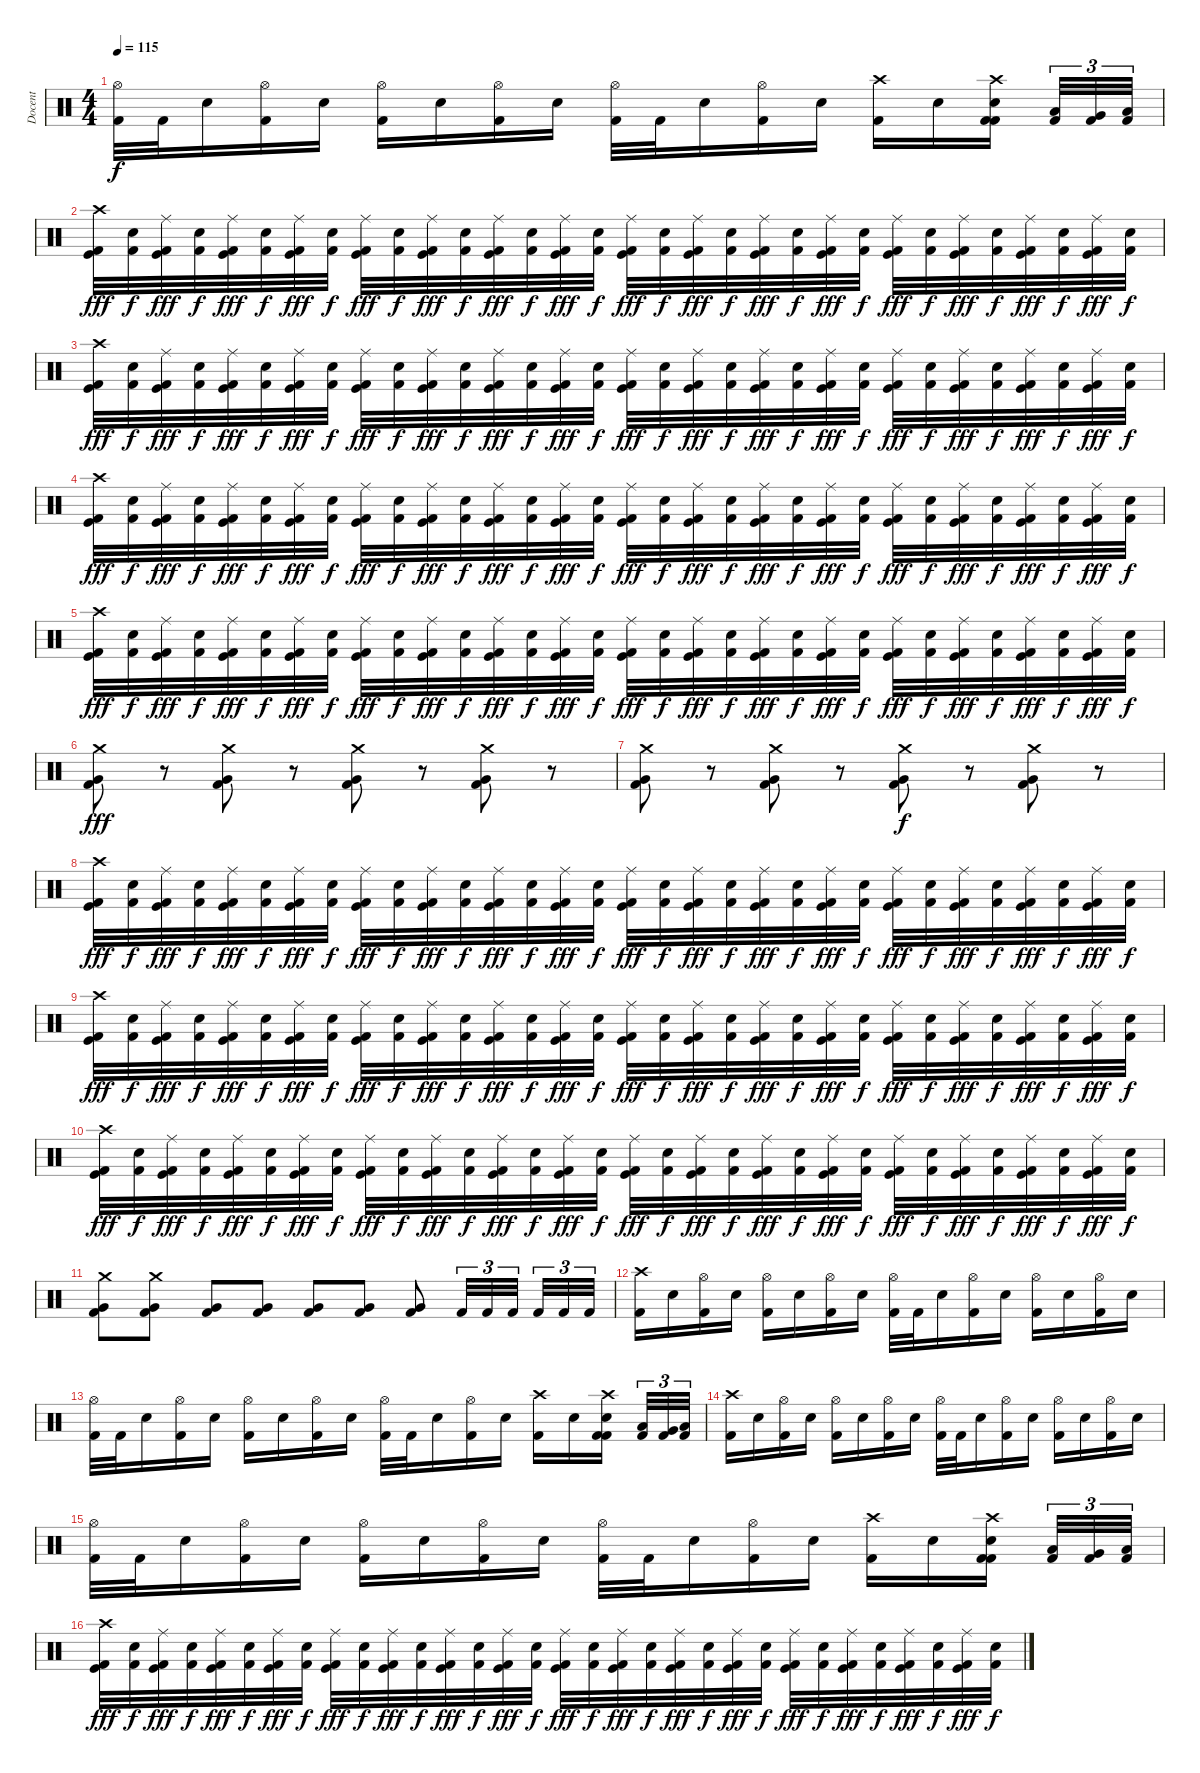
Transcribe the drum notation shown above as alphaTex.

\track ("Docent" "Docent") {instrument percussion}
\staff {score}
\articulation defaults
\ts (4 4)
\tempo 115
\clef neutral
\ks c
("Hi-Hat (open)" "Kick (hit) 2").32{dy f} "Kick (hit) 2".32 "Electric Snare (hit)".16 ("Hi-Hat (open)" "Kick (hit) 2").16 "Electric Snare (hit)".16 ("Hi-Hat (open)" "Kick (hit) 2").16 "Electric Snare (hit)".16 ("Hi-Hat (open)" "Kick (hit) 2").16 "Electric Snare (hit)".16 ("Hi-Hat (open)" "Kick (hit) 2").32 "Kick (hit) 2".32 "Electric Snare (hit)".16 ("Hi-Hat (open)" "Kick (hit) 2").16 "Electric Snare (hit)".16 ("Crash high (hit)" "Kick (hit) 2").16 "Electric Snare (hit)".16 ("Crash high (hit)" "Electric Snare (hit)" "Kick (hit) 2" "Kick (hit) 2").16 ("Kick (hit) 2" "Low Tom (hit)").32{tu (3 2)} ("Kick (hit) 2" "Very Low Tom (hit)").32{tu (3 2)} ("Kick (hit) 2" "Low Floor Tom (hit)").32{tu (3 2)} |
("Crash high (hit)" "Kick (hit)" "Kick (hit) 2").32{dy fff} ("Electric Snare (hit)" "Kick (hit) 2").32{dy f} ("Ride (middle)" "Kick (hit)" "Kick (hit) 2").32{dy fff} ("Electric Snare (hit)" "Kick (hit) 2").32{dy f} ("Ride (middle)" "Kick (hit)" "Kick (hit) 2").32{dy fff} ("Electric Snare (hit)" "Kick (hit) 2").32{dy f} ("Ride (middle)" "Kick (hit)" "Kick (hit) 2").32{dy fff} ("Electric Snare (hit)" "Kick (hit) 2").32{dy f} ("Ride (middle)" "Kick (hit)" "Kick (hit) 2").32{dy fff} ("Electric Snare (hit)" "Kick (hit) 2").32{dy f} ("Ride (middle)" "Kick (hit)" "Kick (hit) 2").32{dy fff} ("Electric Snare (hit)" "Kick (hit) 2").32{dy f} ("Ride (middle)" "Kick (hit)" "Kick (hit) 2").32{dy fff} ("Electric Snare (hit)" "Kick (hit) 2").32{dy f} ("Ride (middle)" "Kick (hit)" "Kick (hit) 2").32{dy fff} ("Electric Snare (hit)" "Kick (hit) 2").32{dy f} ("Ride (middle)" "Kick (hit)" "Kick (hit) 2").32{dy fff} ("Electric Snare (hit)" "Kick (hit) 2").32{dy f} ("Ride (middle)" "Kick (hit)" "Kick (hit) 2").32{dy fff} ("Electric Snare (hit)" "Kick (hit) 2").32{dy f} ("Ride (middle)" "Kick (hit)" "Kick (hit) 2").32{dy fff} ("Electric Snare (hit)" "Kick (hit) 2").32{dy f} ("Ride (middle)" "Kick (hit)" "Kick (hit) 2").32{dy fff} ("Electric Snare (hit)" "Kick (hit) 2").32{dy f} ("Ride (middle)" "Kick (hit)" "Kick (hit) 2").32{dy fff} ("Electric Snare (hit)" "Kick (hit) 2").32{dy f} ("Ride (middle)" "Kick (hit)" "Kick (hit) 2").32{dy fff} ("Electric Snare (hit)" "Kick (hit) 2").32{dy f} ("Ride (middle)" "Kick (hit)" "Kick (hit) 2").32{dy fff} ("Electric Snare (hit)" "Kick (hit) 2").32{dy f} ("Ride (middle)" "Kick (hit)" "Kick (hit) 2").32{dy fff} ("Electric Snare (hit)" "Kick (hit) 2").32{dy f} |
("Crash high (hit)" "Kick (hit)" "Kick (hit) 2").32{dy fff} ("Electric Snare (hit)" "Kick (hit) 2").32{dy f} ("Ride (middle)" "Kick (hit)" "Kick (hit) 2").32{dy fff} ("Electric Snare (hit)" "Kick (hit) 2").32{dy f} ("Ride (middle)" "Kick (hit)" "Kick (hit) 2").32{dy fff} ("Electric Snare (hit)" "Kick (hit) 2").32{dy f} ("Ride (middle)" "Kick (hit)" "Kick (hit) 2").32{dy fff} ("Electric Snare (hit)" "Kick (hit) 2").32{dy f} ("Ride (middle)" "Kick (hit)" "Kick (hit) 2").32{dy fff} ("Electric Snare (hit)" "Kick (hit) 2").32{dy f} ("Ride (middle)" "Kick (hit)" "Kick (hit) 2").32{dy fff} ("Electric Snare (hit)" "Kick (hit) 2").32{dy f} ("Ride (middle)" "Kick (hit)" "Kick (hit) 2").32{dy fff} ("Electric Snare (hit)" "Kick (hit) 2").32{dy f} ("Ride (middle)" "Kick (hit)" "Kick (hit) 2").32{dy fff} ("Electric Snare (hit)" "Kick (hit) 2").32{dy f} ("Ride (middle)" "Kick (hit)" "Kick (hit) 2").32{dy fff} ("Electric Snare (hit)" "Kick (hit) 2").32{dy f} ("Ride (middle)" "Kick (hit)" "Kick (hit) 2").32{dy fff} ("Electric Snare (hit)" "Kick (hit) 2").32{dy f} ("Ride (middle)" "Kick (hit)" "Kick (hit) 2").32{dy fff} ("Electric Snare (hit)" "Kick (hit) 2").32{dy f} ("Ride (middle)" "Kick (hit)" "Kick (hit) 2").32{dy fff} ("Electric Snare (hit)" "Kick (hit) 2").32{dy f} ("Ride (middle)" "Kick (hit)" "Kick (hit) 2").32{dy fff} ("Electric Snare (hit)" "Kick (hit) 2").32{dy f} ("Ride (middle)" "Kick (hit)" "Kick (hit) 2").32{dy fff} ("Electric Snare (hit)" "Kick (hit) 2").32{dy f} ("Ride (middle)" "Kick (hit)" "Kick (hit) 2").32{dy fff} ("Electric Snare (hit)" "Kick (hit) 2").32{dy f} ("Ride (middle)" "Kick (hit)" "Kick (hit) 2").32{dy fff} ("Electric Snare (hit)" "Kick (hit) 2").32{dy f} |
("Crash high (hit)" "Kick (hit)" "Kick (hit) 2").32{dy fff} ("Electric Snare (hit)" "Kick (hit) 2").32{dy f} ("Ride (middle)" "Kick (hit)" "Kick (hit) 2").32{dy fff} ("Electric Snare (hit)" "Kick (hit) 2").32{dy f} ("Ride (middle)" "Kick (hit)" "Kick (hit) 2").32{dy fff} ("Electric Snare (hit)" "Kick (hit) 2").32{dy f} ("Ride (middle)" "Kick (hit)" "Kick (hit) 2").32{dy fff} ("Electric Snare (hit)" "Kick (hit) 2").32{dy f} ("Ride (middle)" "Kick (hit)" "Kick (hit) 2").32{dy fff} ("Electric Snare (hit)" "Kick (hit) 2").32{dy f} ("Ride (middle)" "Kick (hit)" "Kick (hit) 2").32{dy fff} ("Electric Snare (hit)" "Kick (hit) 2").32{dy f} ("Ride (middle)" "Kick (hit)" "Kick (hit) 2").32{dy fff} ("Electric Snare (hit)" "Kick (hit) 2").32{dy f} ("Ride (middle)" "Kick (hit)" "Kick (hit) 2").32{dy fff} ("Electric Snare (hit)" "Kick (hit) 2").32{dy f} ("Ride (middle)" "Kick (hit)" "Kick (hit) 2").32{dy fff} ("Electric Snare (hit)" "Kick (hit) 2").32{dy f} ("Ride (middle)" "Kick (hit)" "Kick (hit) 2").32{dy fff} ("Electric Snare (hit)" "Kick (hit) 2").32{dy f} ("Ride (middle)" "Kick (hit)" "Kick (hit) 2").32{dy fff} ("Electric Snare (hit)" "Kick (hit) 2").32{dy f} ("Ride (middle)" "Kick (hit)" "Kick (hit) 2").32{dy fff} ("Electric Snare (hit)" "Kick (hit) 2").32{dy f} ("Ride (middle)" "Kick (hit)" "Kick (hit) 2").32{dy fff} ("Electric Snare (hit)" "Kick (hit) 2").32{dy f} ("Ride (middle)" "Kick (hit)" "Kick (hit) 2").32{dy fff} ("Electric Snare (hit)" "Kick (hit) 2").32{dy f} ("Ride (middle)" "Kick (hit)" "Kick (hit) 2").32{dy fff} ("Electric Snare (hit)" "Kick (hit) 2").32{dy f} ("Ride (middle)" "Kick (hit)" "Kick (hit) 2").32{dy fff} ("Electric Snare (hit)" "Kick (hit) 2").32{dy f} |
("Crash high (hit)" "Kick (hit)" "Kick (hit) 2").32{dy fff} ("Electric Snare (hit)" "Kick (hit) 2").32{dy f} ("Ride (middle)" "Kick (hit)" "Kick (hit) 2").32{dy fff} ("Electric Snare (hit)" "Kick (hit) 2").32{dy f} ("Ride (middle)" "Kick (hit)" "Kick (hit) 2").32{dy fff} ("Electric Snare (hit)" "Kick (hit) 2").32{dy f} ("Ride (middle)" "Kick (hit)" "Kick (hit) 2").32{dy fff} ("Electric Snare (hit)" "Kick (hit) 2").32{dy f} ("Ride (middle)" "Kick (hit)" "Kick (hit) 2").32{dy fff} ("Electric Snare (hit)" "Kick (hit) 2").32{dy f} ("Ride (middle)" "Kick (hit)" "Kick (hit) 2").32{dy fff} ("Electric Snare (hit)" "Kick (hit) 2").32{dy f} ("Ride (middle)" "Kick (hit)" "Kick (hit) 2").32{dy fff} ("Electric Snare (hit)" "Kick (hit) 2").32{dy f} ("Ride (middle)" "Kick (hit)" "Kick (hit) 2").32{dy fff} ("Electric Snare (hit)" "Kick (hit) 2").32{dy f} ("Ride (middle)" "Kick (hit)" "Kick (hit) 2").32{dy fff} ("Electric Snare (hit)" "Kick (hit) 2").32{dy f} ("Ride (middle)" "Kick (hit)" "Kick (hit) 2").32{dy fff} ("Electric Snare (hit)" "Kick (hit) 2").32{dy f} ("Ride (middle)" "Kick (hit)" "Kick (hit) 2").32{dy fff} ("Electric Snare (hit)" "Kick (hit) 2").32{dy f} ("Ride (middle)" "Kick (hit)" "Kick (hit) 2").32{dy fff} ("Electric Snare (hit)" "Kick (hit) 2").32{dy f} ("Ride (middle)" "Kick (hit)" "Kick (hit) 2").32{dy fff} ("Electric Snare (hit)" "Kick (hit) 2").32{dy f} ("Ride (middle)" "Kick (hit)" "Kick (hit) 2").32{dy fff} ("Electric Snare (hit)" "Kick (hit) 2").32{dy f} ("Ride (middle)" "Kick (hit)" "Kick (hit) 2").32{dy fff} ("Electric Snare (hit)" "Kick (hit) 2").32{dy f} ("Ride (middle)" "Kick (hit)" "Kick (hit) 2").32{dy fff} ("Electric Snare (hit)" "Kick (hit) 2").32{dy f} |
("Crash medium (hit)" "Very Low Tom (hit)" "Kick (hit) 2").8{dy fff} r.8 ("Crash medium (hit)" "Very Low Tom (hit)" "Kick (hit) 2").8 r.8 ("Crash medium (hit)" "Very Low Tom (hit)" "Kick (hit) 2").8 r.8 ("Crash medium (hit)" "Very Low Tom (hit)" "Kick (hit) 2").8 r.8 |
("Crash medium (hit)" "Very Low Tom (hit)" "Kick (hit) 2").8 r.8 ("Crash medium (hit)" "Very Low Tom (hit)" "Kick (hit) 2").8 r.8 ("Crash medium (hit)" "Very Low Tom (hit)" "Kick (hit) 2").8{dy f} r.8 ("Crash medium (hit)" "Very Low Tom (hit)" "Kick (hit) 2").8 r.8 |
("Crash high (hit)" "Kick (hit)" "Kick (hit) 2").32{dy fff} ("Electric Snare (hit)" "Kick (hit) 2").32{dy f} ("Ride (middle)" "Kick (hit)" "Kick (hit) 2").32{dy fff} ("Electric Snare (hit)" "Kick (hit) 2").32{dy f} ("Ride (middle)" "Kick (hit)" "Kick (hit) 2").32{dy fff} ("Electric Snare (hit)" "Kick (hit) 2").32{dy f} ("Ride (middle)" "Kick (hit)" "Kick (hit) 2").32{dy fff} ("Electric Snare (hit)" "Kick (hit) 2").32{dy f} ("Ride (middle)" "Kick (hit)" "Kick (hit) 2").32{dy fff} ("Electric Snare (hit)" "Kick (hit) 2").32{dy f} ("Ride (middle)" "Kick (hit)" "Kick (hit) 2").32{dy fff} ("Electric Snare (hit)" "Kick (hit) 2").32{dy f} ("Ride (middle)" "Kick (hit)" "Kick (hit) 2").32{dy fff} ("Electric Snare (hit)" "Kick (hit) 2").32{dy f} ("Ride (middle)" "Kick (hit)" "Kick (hit) 2").32{dy fff} ("Electric Snare (hit)" "Kick (hit) 2").32{dy f} ("Ride (middle)" "Kick (hit)" "Kick (hit) 2").32{dy fff} ("Electric Snare (hit)" "Kick (hit) 2").32{dy f} ("Ride (middle)" "Kick (hit)" "Kick (hit) 2").32{dy fff} ("Electric Snare (hit)" "Kick (hit) 2").32{dy f} ("Ride (middle)" "Kick (hit)" "Kick (hit) 2").32{dy fff} ("Electric Snare (hit)" "Kick (hit) 2").32{dy f} ("Ride (middle)" "Kick (hit)" "Kick (hit) 2").32{dy fff} ("Electric Snare (hit)" "Kick (hit) 2").32{dy f} ("Ride (middle)" "Kick (hit)" "Kick (hit) 2").32{dy fff} ("Electric Snare (hit)" "Kick (hit) 2").32{dy f} ("Ride (middle)" "Kick (hit)" "Kick (hit) 2").32{dy fff} ("Electric Snare (hit)" "Kick (hit) 2").32{dy f} ("Ride (middle)" "Kick (hit)" "Kick (hit) 2").32{dy fff} ("Electric Snare (hit)" "Kick (hit) 2").32{dy f} ("Ride (middle)" "Kick (hit)" "Kick (hit) 2").32{dy fff} ("Electric Snare (hit)" "Kick (hit) 2").32{dy f} |
("Crash high (hit)" "Kick (hit)" "Kick (hit) 2").32{dy fff} ("Electric Snare (hit)" "Kick (hit) 2").32{dy f} ("Ride (middle)" "Kick (hit)" "Kick (hit) 2").32{dy fff} ("Electric Snare (hit)" "Kick (hit) 2").32{dy f} ("Ride (middle)" "Kick (hit)" "Kick (hit) 2").32{dy fff} ("Electric Snare (hit)" "Kick (hit) 2").32{dy f} ("Ride (middle)" "Kick (hit)" "Kick (hit) 2").32{dy fff} ("Electric Snare (hit)" "Kick (hit) 2").32{dy f} ("Ride (middle)" "Kick (hit)" "Kick (hit) 2").32{dy fff} ("Electric Snare (hit)" "Kick (hit) 2").32{dy f} ("Ride (middle)" "Kick (hit)" "Kick (hit) 2").32{dy fff} ("Electric Snare (hit)" "Kick (hit) 2").32{dy f} ("Ride (middle)" "Kick (hit)" "Kick (hit) 2").32{dy fff} ("Electric Snare (hit)" "Kick (hit) 2").32{dy f} ("Ride (middle)" "Kick (hit)" "Kick (hit) 2").32{dy fff} ("Electric Snare (hit)" "Kick (hit) 2").32{dy f} ("Ride (middle)" "Kick (hit)" "Kick (hit) 2").32{dy fff} ("Electric Snare (hit)" "Kick (hit) 2").32{dy f} ("Ride (middle)" "Kick (hit)" "Kick (hit) 2").32{dy fff} ("Electric Snare (hit)" "Kick (hit) 2").32{dy f} ("Ride (middle)" "Kick (hit)" "Kick (hit) 2").32{dy fff} ("Electric Snare (hit)" "Kick (hit) 2").32{dy f} ("Ride (middle)" "Kick (hit)" "Kick (hit) 2").32{dy fff} ("Electric Snare (hit)" "Kick (hit) 2").32{dy f} ("Ride (middle)" "Kick (hit)" "Kick (hit) 2").32{dy fff} ("Electric Snare (hit)" "Kick (hit) 2").32{dy f} ("Ride (middle)" "Kick (hit)" "Kick (hit) 2").32{dy fff} ("Electric Snare (hit)" "Kick (hit) 2").32{dy f} ("Ride (middle)" "Kick (hit)" "Kick (hit) 2").32{dy fff} ("Electric Snare (hit)" "Kick (hit) 2").32{dy f} ("Ride (middle)" "Kick (hit)" "Kick (hit) 2").32{dy fff} ("Electric Snare (hit)" "Kick (hit) 2").32{dy f} |
("Crash high (hit)" "Kick (hit)" "Kick (hit) 2").32{dy fff} ("Electric Snare (hit)" "Kick (hit) 2").32{dy f} ("Ride (middle)" "Kick (hit)" "Kick (hit) 2").32{dy fff} ("Electric Snare (hit)" "Kick (hit) 2").32{dy f} ("Ride (middle)" "Kick (hit)" "Kick (hit) 2").32{dy fff} ("Electric Snare (hit)" "Kick (hit) 2").32{dy f} ("Ride (middle)" "Kick (hit)" "Kick (hit) 2").32{dy fff} ("Electric Snare (hit)" "Kick (hit) 2").32{dy f} ("Ride (middle)" "Kick (hit)" "Kick (hit) 2").32{dy fff} ("Electric Snare (hit)" "Kick (hit) 2").32{dy f} ("Ride (middle)" "Kick (hit)" "Kick (hit) 2").32{dy fff} ("Electric Snare (hit)" "Kick (hit) 2").32{dy f} ("Ride (middle)" "Kick (hit)" "Kick (hit) 2").32{dy fff} ("Electric Snare (hit)" "Kick (hit) 2").32{dy f} ("Ride (middle)" "Kick (hit)" "Kick (hit) 2").32{dy fff} ("Electric Snare (hit)" "Kick (hit) 2").32{dy f} ("Ride (middle)" "Kick (hit)" "Kick (hit) 2").32{dy fff} ("Electric Snare (hit)" "Kick (hit) 2").32{dy f} ("Ride (middle)" "Kick (hit)" "Kick (hit) 2").32{dy fff} ("Electric Snare (hit)" "Kick (hit) 2").32{dy f} ("Ride (middle)" "Kick (hit)" "Kick (hit) 2").32{dy fff} ("Electric Snare (hit)" "Kick (hit) 2").32{dy f} ("Ride (middle)" "Kick (hit)" "Kick (hit) 2").32{dy fff} ("Electric Snare (hit)" "Kick (hit) 2").32{dy f} ("Ride (middle)" "Kick (hit)" "Kick (hit) 2").32{dy fff} ("Electric Snare (hit)" "Kick (hit) 2").32{dy f} ("Ride (middle)" "Kick (hit)" "Kick (hit) 2").32{dy fff} ("Electric Snare (hit)" "Kick (hit) 2").32{dy f} ("Ride (middle)" "Kick (hit)" "Kick (hit) 2").32{dy fff} ("Electric Snare (hit)" "Kick (hit) 2").32{dy f} ("Ride (middle)" "Kick (hit)" "Kick (hit) 2").32{dy fff} ("Electric Snare (hit)" "Kick (hit) 2").32{dy f} |
("Crash medium (hit)" "Very Low Tom (hit)" "Kick (hit) 2").8 ("Crash medium (hit)" "Very Low Tom (hit)" "Kick (hit) 2").8 ("Kick (hit) 2" "Very Low Tom (hit)").8 ("Kick (hit) 2" "Very Low Tom (hit)").8 ("Kick (hit) 2" "Very Low Tom (hit)").8 ("Kick (hit) 2" "Very Low Tom (hit)").8 ("Kick (hit) 2" "Very Low Tom (hit)").8 "Kick (hit) 2".32{tu (3 2)} "Kick (hit) 2".32{tu (3 2)} "Kick (hit) 2".32{tu (3 2)} "Kick (hit) 2".32{tu (3 2)} "Kick (hit) 2".32{tu (3 2)} "Kick (hit) 2".32{tu (3 2)} |
("Crash high (hit)" "Kick (hit) 2").16 "Electric Snare (hit)".16 ("Hi-Hat (open)" "Kick (hit) 2").16 "Electric Snare (hit)".16 ("Hi-Hat (open)" "Kick (hit) 2").16 "Electric Snare (hit)".16 ("Hi-Hat (open)" "Kick (hit) 2").16 "Electric Snare (hit)".16 ("Hi-Hat (open)" "Kick (hit) 2").32 "Kick (hit) 2".32 "Electric Snare (hit)".16 ("Hi-Hat (open)" "Kick (hit) 2").16 "Electric Snare (hit)".16 ("Hi-Hat (open)" "Kick (hit) 2").16 "Electric Snare (hit)".16 ("Hi-Hat (open)" "Kick (hit) 2").16 "Electric Snare (hit)".16 |
("Hi-Hat (open)" "Kick (hit) 2").32 "Kick (hit) 2".32 "Electric Snare (hit)".16 ("Hi-Hat (open)" "Kick (hit) 2").16 "Electric Snare (hit)".16 ("Hi-Hat (open)" "Kick (hit) 2").16 "Electric Snare (hit)".16 ("Hi-Hat (open)" "Kick (hit) 2").16 "Electric Snare (hit)".16 ("Hi-Hat (open)" "Kick (hit) 2").32 "Kick (hit) 2".32 "Electric Snare (hit)".16 ("Hi-Hat (open)" "Kick (hit) 2").16 "Electric Snare (hit)".16 ("Crash high (hit)" "Kick (hit) 2").16 "Electric Snare (hit)".16 ("Crash high (hit)" "Electric Snare (hit)" "Kick (hit) 2" "Kick (hit) 2").16 ("Kick (hit) 2" "Low Tom (hit)").32{tu (3 2)} ("Kick (hit) 2" "Very Low Tom (hit)").32{tu (3 2)} ("Kick (hit) 2" "Low Floor Tom (hit)").32{tu (3 2)} |
("Crash high (hit)" "Kick (hit) 2").16 "Electric Snare (hit)".16 ("Hi-Hat (open)" "Kick (hit) 2").16 "Electric Snare (hit)".16 ("Hi-Hat (open)" "Kick (hit) 2").16 "Electric Snare (hit)".16 ("Hi-Hat (open)" "Kick (hit) 2").16 "Electric Snare (hit)".16 ("Hi-Hat (open)" "Kick (hit) 2").32 "Kick (hit) 2".32 "Electric Snare (hit)".16 ("Hi-Hat (open)" "Kick (hit) 2").16 "Electric Snare (hit)".16 ("Hi-Hat (open)" "Kick (hit) 2").16 "Electric Snare (hit)".16 ("Hi-Hat (open)" "Kick (hit) 2").16 "Electric Snare (hit)".16 |
("Hi-Hat (open)" "Kick (hit) 2").32 "Kick (hit) 2".32 "Electric Snare (hit)".16 ("Hi-Hat (open)" "Kick (hit) 2").16 "Electric Snare (hit)".16 ("Hi-Hat (open)" "Kick (hit) 2").16 "Electric Snare (hit)".16 ("Hi-Hat (open)" "Kick (hit) 2").16 "Electric Snare (hit)".16 ("Hi-Hat (open)" "Kick (hit) 2").32 "Kick (hit) 2".32 "Electric Snare (hit)".16 ("Hi-Hat (open)" "Kick (hit) 2").16 "Electric Snare (hit)".16 ("Crash high (hit)" "Kick (hit) 2").16 "Electric Snare (hit)".16 ("Crash high (hit)" "Electric Snare (hit)" "Kick (hit) 2" "Kick (hit) 2").16 ("Kick (hit) 2" "Low Tom (hit)").32{tu (3 2)} ("Kick (hit) 2" "Very Low Tom (hit)").32{tu (3 2)} ("Kick (hit) 2" "Low Floor Tom (hit)").32{tu (3 2)} |
("Crash high (hit)" "Kick (hit)" "Kick (hit) 2").32{dy fff} ("Electric Snare (hit)" "Kick (hit) 2").32{dy f} ("Ride (middle)" "Kick (hit)" "Kick (hit) 2").32{dy fff} ("Electric Snare (hit)" "Kick (hit) 2").32{dy f} ("Ride (middle)" "Kick (hit)" "Kick (hit) 2").32{dy fff} ("Electric Snare (hit)" "Kick (hit) 2").32{dy f} ("Ride (middle)" "Kick (hit)" "Kick (hit) 2").32{dy fff} ("Electric Snare (hit)" "Kick (hit) 2").32{dy f} ("Ride (middle)" "Kick (hit)" "Kick (hit) 2").32{dy fff} ("Electric Snare (hit)" "Kick (hit) 2").32{dy f} ("Ride (middle)" "Kick (hit)" "Kick (hit) 2").32{dy fff} ("Electric Snare (hit)" "Kick (hit) 2").32{dy f} ("Ride (middle)" "Kick (hit)" "Kick (hit) 2").32{dy fff} ("Electric Snare (hit)" "Kick (hit) 2").32{dy f} ("Ride (middle)" "Kick (hit)" "Kick (hit) 2").32{dy fff} ("Electric Snare (hit)" "Kick (hit) 2").32{dy f} ("Ride (middle)" "Kick (hit)" "Kick (hit) 2").32{dy fff} ("Electric Snare (hit)" "Kick (hit) 2").32{dy f} ("Ride (middle)" "Kick (hit)" "Kick (hit) 2").32{dy fff} ("Electric Snare (hit)" "Kick (hit) 2").32{dy f} ("Ride (middle)" "Kick (hit)" "Kick (hit) 2").32{dy fff} ("Electric Snare (hit)" "Kick (hit) 2").32{dy f} ("Ride (middle)" "Kick (hit)" "Kick (hit) 2").32{dy fff} ("Electric Snare (hit)" "Kick (hit) 2").32{dy f} ("Ride (middle)" "Kick (hit)" "Kick (hit) 2").32{dy fff} ("Electric Snare (hit)" "Kick (hit) 2").32{dy f} ("Ride (middle)" "Kick (hit)" "Kick (hit) 2").32{dy fff} ("Electric Snare (hit)" "Kick (hit) 2").32{dy f} ("Ride (middle)" "Kick (hit)" "Kick (hit) 2").32{dy fff} ("Electric Snare (hit)" "Kick (hit) 2").32{dy f} ("Ride (middle)" "Kick (hit)" "Kick (hit) 2").32{dy fff} ("Electric Snare (hit)" "Kick (hit) 2").32{dy f}
